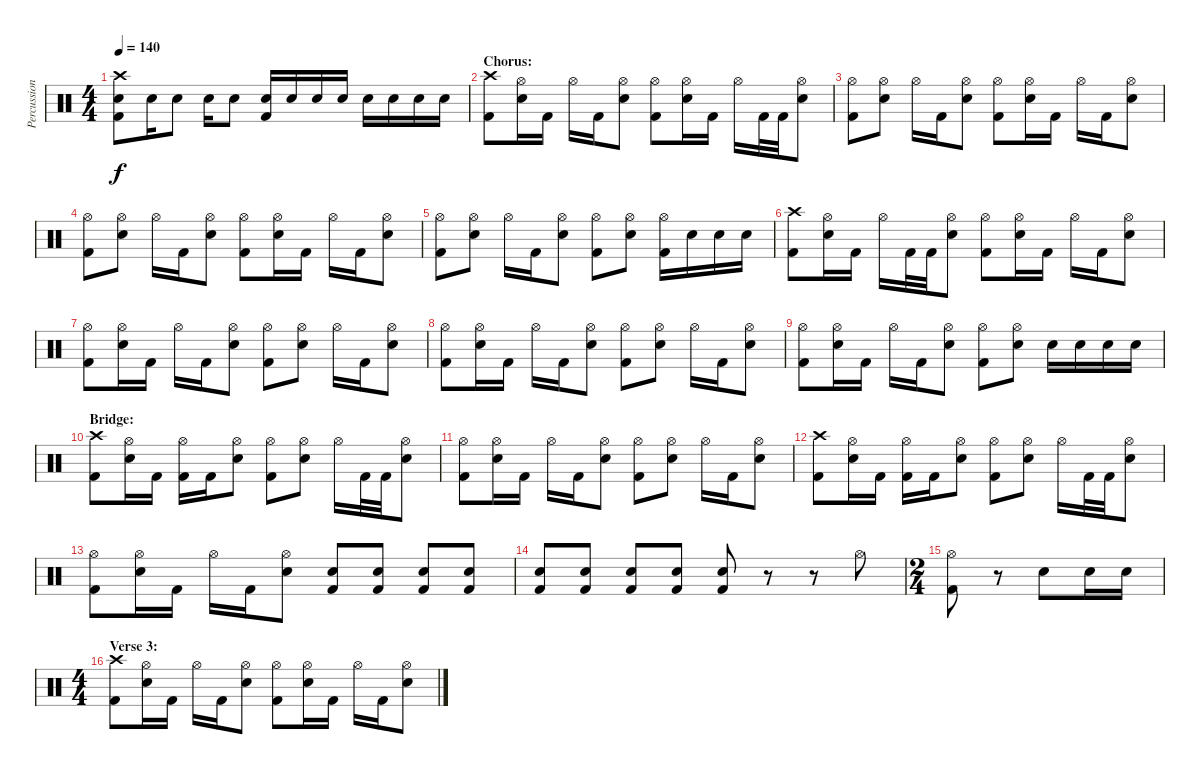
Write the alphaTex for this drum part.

\track ("Percussion" "Percussion") {instrument percussion}
\staff {score}
\articulation defaults
\ts (4 4)
\tempo 140
\clef neutral
\ks c
("Crash high (hit)" "Electric Snare (hit)" "Kick (hit) 2").8{dy f} "Electric Snare (hit)".16 "Electric Snare (hit)".8 "Electric Snare (hit)".16 "Electric Snare (hit)".8 ("Electric Snare (hit)" "Kick (hit) 2").16 "Electric Snare (hit)".16 "Electric Snare (hit)".16 "Electric Snare (hit)".16 "Electric Snare (hit)".16 "Electric Snare (hit)".16 "Electric Snare (hit)".16 "Electric Snare (hit)".16 |
\section ("" "Chorus:")
("Crash high (hit)" "Kick (hit) 2").8 ("Hi-Hat (open)" "Electric Snare (hit)").16 "Kick (hit) 2".16 "Hi-Hat (open)".16 "Kick (hit) 2".16 ("Hi-Hat (open)" "Electric Snare (hit)").8 ("Hi-Hat (open)" "Kick (hit) 2").8 ("Hi-Hat (open)" "Electric Snare (hit)").16 "Kick (hit) 2".16 "Hi-Hat (open)".16 "Kick (hit) 2".32 "Kick (hit) 2".32 ("Hi-Hat (open)" "Electric Snare (hit)").8 |
("Hi-Hat (open)" "Kick (hit) 2").8 ("Hi-Hat (open)" "Electric Snare (hit)").8 "Hi-Hat (open)".16 "Kick (hit) 2".16 ("Hi-Hat (open)" "Electric Snare (hit)").8 ("Hi-Hat (open)" "Kick (hit) 2").8 ("Hi-Hat (open)" "Electric Snare (hit)").16 "Kick (hit) 2".16 "Hi-Hat (open)".16 "Kick (hit) 2".16 ("Hi-Hat (open)" "Electric Snare (hit)").8 |
("Hi-Hat (open)" "Kick (hit) 2").8 ("Hi-Hat (open)" "Electric Snare (hit)").8 "Hi-Hat (open)".16 "Kick (hit) 2".16 ("Hi-Hat (open)" "Electric Snare (hit)").8 ("Hi-Hat (open)" "Kick (hit) 2").8 ("Hi-Hat (open)" "Electric Snare (hit)").16 "Kick (hit) 2".16 "Hi-Hat (open)".16 "Kick (hit) 2".16 ("Hi-Hat (open)" "Electric Snare (hit)").8 |
("Hi-Hat (open)" "Kick (hit) 2").8 ("Hi-Hat (open)" "Electric Snare (hit)").8 "Hi-Hat (open)".16 "Kick (hit) 2".16 ("Hi-Hat (open)" "Electric Snare (hit)").8 ("Hi-Hat (open)" "Kick (hit) 2").8 ("Hi-Hat (open)" "Electric Snare (hit)").8 ("Hi-Hat (open)" "Kick (hit) 2").16 "Electric Snare (hit)".16 "Electric Snare (hit)".16 "Electric Snare (hit)".16 |
("Crash high (hit)" "Kick (hit) 2").8 ("Hi-Hat (open)" "Electric Snare (hit)").16 "Kick (hit) 2".16 "Hi-Hat (open)".16 "Kick (hit) 2".32 "Kick (hit) 2".32 ("Hi-Hat (open)" "Electric Snare (hit)").8 ("Hi-Hat (open)" "Kick (hit) 2").8 ("Hi-Hat (open)" "Electric Snare (hit)").16 "Kick (hit) 2".16 "Hi-Hat (open)".16 "Kick (hit) 2".16 ("Hi-Hat (open)" "Electric Snare (hit)").8 |
("Hi-Hat (open)" "Kick (hit) 2").8 ("Hi-Hat (open)" "Electric Snare (hit)").16 "Kick (hit) 2".16 "Hi-Hat (open)".16 "Kick (hit) 2".16 ("Hi-Hat (open)" "Electric Snare (hit)").8 ("Hi-Hat (open)" "Kick (hit) 2").8 ("Hi-Hat (open)" "Electric Snare (hit)").8 "Hi-Hat (open)".16 "Kick (hit) 2".16 ("Hi-Hat (open)" "Electric Snare (hit)").8 |
("Hi-Hat (open)" "Kick (hit) 2").8 ("Hi-Hat (open)" "Electric Snare (hit)").16 "Kick (hit) 2".16 "Hi-Hat (open)".16 "Kick (hit) 2".16 ("Hi-Hat (open)" "Electric Snare (hit)").8 ("Hi-Hat (open)" "Kick (hit) 2").8 ("Hi-Hat (open)" "Electric Snare (hit)").8 "Hi-Hat (open)".16 "Kick (hit) 2".16 ("Hi-Hat (open)" "Electric Snare (hit)").8 |
("Hi-Hat (open)" "Kick (hit) 2").8 ("Hi-Hat (open)" "Electric Snare (hit)").16 "Kick (hit) 2".16 "Hi-Hat (open)".16 "Kick (hit) 2".16 ("Hi-Hat (open)" "Electric Snare (hit)").8 ("Hi-Hat (open)" "Kick (hit) 2").8 ("Hi-Hat (open)" "Electric Snare (hit)").8 "Electric Snare (hit)".16 "Electric Snare (hit)".16 "Electric Snare (hit)".16 "Electric Snare (hit)".16 |
\section ("" "Bridge:")
("Crash high (hit)" "Kick (hit) 2").8 ("Hi-Hat (open)" "Electric Snare (hit)").16 "Kick (hit) 2".16 ("Hi-Hat (open)" "Kick (hit) 2").16 "Kick (hit) 2".16 ("Hi-Hat (open)" "Electric Snare (hit)").8 ("Hi-Hat (open)" "Kick (hit) 2").8 ("Hi-Hat (open)" "Electric Snare (hit)").8 "Hi-Hat (open)".16 "Kick (hit) 2".32 "Kick (hit) 2".32 ("Hi-Hat (open)" "Electric Snare (hit)").8 |
("Hi-Hat (open)" "Kick (hit) 2").8 ("Hi-Hat (open)" "Electric Snare (hit)").16 "Kick (hit) 2".16 "Hi-Hat (open)".16 "Kick (hit) 2".16 ("Hi-Hat (open)" "Electric Snare (hit)").8 ("Hi-Hat (open)" "Kick (hit) 2").8 ("Hi-Hat (open)" "Electric Snare (hit)").8 "Hi-Hat (open)".16 "Kick (hit) 2".16 ("Hi-Hat (open)" "Electric Snare (hit)").8 |
("Crash high (hit)" "Kick (hit) 2").8 ("Hi-Hat (open)" "Electric Snare (hit)").16 "Kick (hit) 2".16 ("Hi-Hat (open)" "Kick (hit) 2").16 "Kick (hit) 2".16 ("Hi-Hat (open)" "Electric Snare (hit)").8 ("Hi-Hat (open)" "Kick (hit) 2").8 ("Hi-Hat (open)" "Electric Snare (hit)").8 "Hi-Hat (open)".16 "Kick (hit) 2".32 "Kick (hit) 2".32 ("Hi-Hat (open)" "Electric Snare (hit)").8 |
("Hi-Hat (open)" "Kick (hit) 2").8 ("Hi-Hat (open)" "Electric Snare (hit)").16 "Kick (hit) 2".16 "Hi-Hat (open)".16 "Kick (hit) 2".16 ("Hi-Hat (open)" "Electric Snare (hit)").8 ("Electric Snare (hit)" "Kick (hit) 2").8 ("Electric Snare (hit)" "Kick (hit) 2").8 ("Electric Snare (hit)" "Kick (hit) 2").8 ("Electric Snare (hit)" "Kick (hit) 2").8 |
("Electric Snare (hit)" "Kick (hit) 2").8 ("Electric Snare (hit)" "Kick (hit) 2").8 ("Electric Snare (hit)" "Kick (hit) 2").8 ("Electric Snare (hit)" "Kick (hit) 2").8 ("Electric Snare (hit)" "Kick (hit) 2").8 r.8 r.8 "Hi-Hat (open)".8 |
\ts (2 4)
("Hi-Hat (open)" "Kick (hit) 2").8 r.8 "Electric Snare (hit)".8 "Electric Snare (hit)".16 "Electric Snare (hit)".16 |
\ts (4 4)
\section ("" "Verse 3:")
("Crash high (hit)" "Kick (hit) 2").8 ("Hi-Hat (open)" "Electric Snare (hit)").16 "Kick (hit) 2".16 "Hi-Hat (open)".16 "Kick (hit) 2".16 ("Hi-Hat (open)" "Electric Snare (hit)").8 ("Hi-Hat (open)" "Kick (hit) 2").8 ("Hi-Hat (open)" "Electric Snare (hit)").16 "Kick (hit) 2".16 "Hi-Hat (open)".16 "Kick (hit) 2".16 ("Hi-Hat (open)" "Electric Snare (hit)").8
